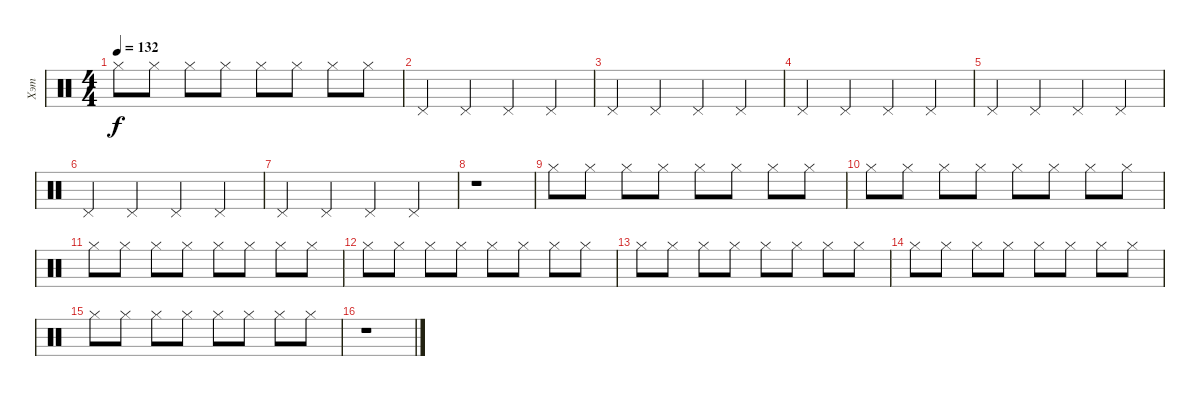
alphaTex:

\track ("Хэт" "Хэт") {instrument percussion}
\staff {score}
\articulation defaults
\ts (4 4)
\tempo 132
\clef neutral
\ks c "Hi-Hat (closed)".8{dy f} "Hi-Hat (closed)".8 "Hi-Hat (closed)".8 "Hi-Hat (closed)".8 "Hi-Hat (closed)".8 "Hi-Hat (closed)".8 "Hi-Hat (closed)".8 "Hi-Hat (closed)".8
|
"Pedal Hi-Hat (hit)".4 "Pedal Hi-Hat (hit)".4 "Pedal Hi-Hat (hit)".4 "Pedal Hi-Hat (hit)".4 |
"Pedal Hi-Hat (hit)".4 "Pedal Hi-Hat (hit)".4 "Pedal Hi-Hat (hit)".4 "Pedal Hi-Hat (hit)".4 |
"Pedal Hi-Hat (hit)".4 "Pedal Hi-Hat (hit)".4 "Pedal Hi-Hat (hit)".4 "Pedal Hi-Hat (hit)".4 |
"Pedal Hi-Hat (hit)".4 "Pedal Hi-Hat (hit)".4 "Pedal Hi-Hat (hit)".4 "Pedal Hi-Hat (hit)".4 |
"Pedal Hi-Hat (hit)".4 "Pedal Hi-Hat (hit)".4 "Pedal Hi-Hat (hit)".4 "Pedal Hi-Hat (hit)".4 |
"Pedal Hi-Hat (hit)".4 "Pedal Hi-Hat (hit)".4 "Pedal Hi-Hat (hit)".4 "Pedal Hi-Hat (hit)".4 |
r.1 |
"Hi-Hat (closed)".8 "Hi-Hat (closed)".8 "Hi-Hat (closed)".8 "Hi-Hat (closed)".8 "Hi-Hat (closed)".8 "Hi-Hat (closed)".8 "Hi-Hat (closed)".8 "Hi-Hat (closed)".8 |
"Hi-Hat (closed)".8 "Hi-Hat (closed)".8 "Hi-Hat (closed)".8 "Hi-Hat (closed)".8 "Hi-Hat (closed)".8 "Hi-Hat (closed)".8 "Hi-Hat (closed)".8 "Hi-Hat (closed)".8 |
"Hi-Hat (closed)".8 "Hi-Hat (closed)".8 "Hi-Hat (closed)".8 "Hi-Hat (closed)".8 "Hi-Hat (closed)".8 "Hi-Hat (closed)".8 "Hi-Hat (closed)".8 "Hi-Hat (closed)".8 |
"Hi-Hat (closed)".8 "Hi-Hat (closed)".8 "Hi-Hat (closed)".8 "Hi-Hat (closed)".8 "Hi-Hat (closed)".8 "Hi-Hat (closed)".8 "Hi-Hat (closed)".8 "Hi-Hat (closed)".8 |
"Hi-Hat (closed)".8 "Hi-Hat (closed)".8 "Hi-Hat (closed)".8 "Hi-Hat (closed)".8 "Hi-Hat (closed)".8 "Hi-Hat (closed)".8 "Hi-Hat (closed)".8 "Hi-Hat (closed)".8 |
"Hi-Hat (closed)".8 "Hi-Hat (closed)".8 "Hi-Hat (closed)".8 "Hi-Hat (closed)".8 "Hi-Hat (closed)".8 "Hi-Hat (closed)".8 "Hi-Hat (closed)".8 "Hi-Hat (closed)".8 |
"Hi-Hat (closed)".8 "Hi-Hat (closed)".8 "Hi-Hat (closed)".8 "Hi-Hat (closed)".8 "Hi-Hat (closed)".8 "Hi-Hat (closed)".8 "Hi-Hat (closed)".8 "Hi-Hat (closed)".8 |
r.1
